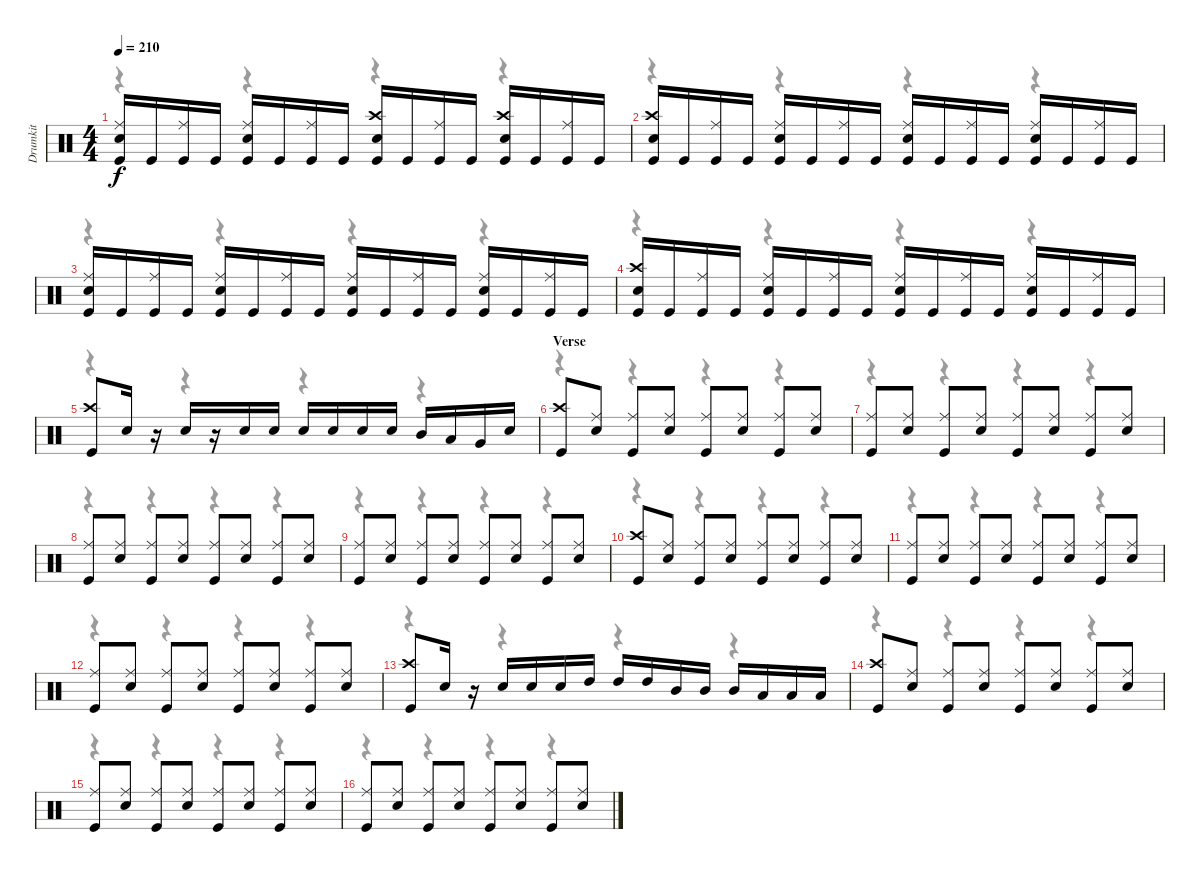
\track ("Drumkit" "Drumkit") {instrument percussion}
\staff {score}
\articulation defaults
\voice
\ts (4 4)
\tempo 210
\clef neutral
\ks c
("Ride (middle)" "Snare (hit) 2" "Kick (hit)").16{dy f} "Kick (hit)".16 ("Ride (middle)" "Kick (hit)").16 "Kick (hit)".16 ("Ride (middle)" "Snare (hit) 2" "Kick (hit)").16 "Kick (hit)".16 ("Ride (middle)" "Kick (hit)").16 "Kick (hit)".16 ("Crash high (hit)" "Snare (hit) 2" "Kick (hit)").16 "Kick (hit)".16 ("Ride (middle)" "Kick (hit)").16 "Kick (hit)".16 ("Crash high (hit)" "Snare (hit) 2" "Kick (hit)").16 "Kick (hit)".16 ("Ride (middle)" "Kick (hit)").16 "Kick (hit)".16 |
("Crash high (hit)" "Snare (hit) 2" "Kick (hit)").16 "Kick (hit)".16 ("Ride (middle)" "Kick (hit)").16 "Kick (hit)".16 ("Ride (middle)" "Snare (hit) 2" "Kick (hit)").16 "Kick (hit)".16 ("Ride (middle)" "Kick (hit)").16 "Kick (hit)".16 ("Ride (middle)" "Snare (hit) 2" "Kick (hit)").16 "Kick (hit)".16 ("Ride (middle)" "Kick (hit)").16 "Kick (hit)".16 ("Ride (middle)" "Snare (hit) 2" "Kick (hit)").16 "Kick (hit)".16 ("Ride (middle)" "Kick (hit)").16 "Kick (hit)".16 |
("Ride (middle)" "Snare (hit) 2" "Kick (hit)").16 "Kick (hit)".16 ("Ride (middle)" "Kick (hit)").16 "Kick (hit)".16 ("Ride (middle)" "Snare (hit) 2" "Kick (hit)").16 "Kick (hit)".16 ("Ride (middle)" "Kick (hit)").16 "Kick (hit)".16 ("Ride (middle)" "Snare (hit) 2" "Kick (hit)").16 "Kick (hit)".16 ("Ride (middle)" "Kick (hit)").16 "Kick (hit)".16 ("Ride (middle)" "Snare (hit) 2" "Kick (hit)").16 "Kick (hit)".16 ("Ride (middle)" "Kick (hit)").16 "Kick (hit)".16 |
("Crash high (hit)" "Snare (hit) 2" "Kick (hit)").16 "Kick (hit)".16 ("Ride (middle)" "Kick (hit)").16 "Kick (hit)".16 ("Ride (middle)" "Snare (hit) 2" "Kick (hit)").16 "Kick (hit)".16 ("Ride (middle)" "Kick (hit)").16 "Kick (hit)".16 ("Ride (middle)" "Snare (hit) 2" "Kick (hit)").16 "Kick (hit)".16 ("Ride (middle)" "Kick (hit)").16 "Kick (hit)".16 ("Ride (middle)" "Snare (hit) 2" "Kick (hit)").16 "Kick (hit)".16 ("Ride (middle)" "Kick (hit)").16 "Kick (hit)".16 |
("Crash high (hit)" "Kick (hit)").8 "Snare (hit) 2".16 r.16 "Snare (hit) 2".16 r.16 "Snare (hit) 2".16 "Snare (hit) 2".16 "Snare (hit) 2".16 "Snare (hit) 2".16 "Snare (hit) 2".16 "Snare (hit) 2".16 "Mid Tom (hit)".16 "Low Tom (hit)".16 "Very Low Tom (hit)".16 "Snare (hit) 2".16 |
\section ("" "Verse")
("Crash high (hit)" "Kick (hit)").8 ("Ride (middle)" "Snare (hit) 2").8 ("Ride (middle)" "Kick (hit)").8 ("Ride (middle)" "Snare (hit) 2").8 ("Ride (middle)" "Kick (hit)").8 ("Ride (middle)" "Snare (hit) 2").8 ("Ride (middle)" "Kick (hit)").8 ("Ride (middle)" "Snare (hit) 2").8 |
("Ride (middle)" "Kick (hit)").8 ("Ride (middle)" "Snare (hit) 2").8 ("Ride (middle)" "Kick (hit)").8 ("Ride (middle)" "Snare (hit) 2").8 ("Ride (middle)" "Kick (hit)").8 ("Ride (middle)" "Snare (hit) 2").8 ("Ride (middle)" "Kick (hit)").8 ("Ride (middle)" "Snare (hit) 2").8 |
("Ride (middle)" "Kick (hit)").8 ("Ride (middle)" "Snare (hit) 2").8 ("Ride (middle)" "Kick (hit)").8 ("Ride (middle)" "Snare (hit) 2").8 ("Ride (middle)" "Kick (hit)").8 ("Ride (middle)" "Snare (hit) 2").8 ("Ride (middle)" "Kick (hit)").8 ("Ride (middle)" "Snare (hit) 2").8 |
("Ride (middle)" "Kick (hit)").8 ("Ride (middle)" "Snare (hit) 2").8 ("Ride (middle)" "Kick (hit)").8 ("Ride (middle)" "Snare (hit) 2").8 ("Ride (middle)" "Kick (hit)").8 ("Ride (middle)" "Snare (hit) 2").8 ("Ride (middle)" "Kick (hit)").8 ("Ride (middle)" "Snare (hit) 2").8 |
("Crash high (hit)" "Kick (hit)").8 ("Ride (middle)" "Snare (hit) 2").8 ("Ride (middle)" "Kick (hit)").8 ("Ride (middle)" "Snare (hit) 2").8 ("Ride (middle)" "Kick (hit)").8 ("Ride (middle)" "Snare (hit) 2").8 ("Ride (middle)" "Kick (hit)").8 ("Ride (middle)" "Snare (hit) 2").8 |
("Ride (middle)" "Kick (hit)").8 ("Ride (middle)" "Snare (hit) 2").8 ("Ride (middle)" "Kick (hit)").8 ("Ride (middle)" "Snare (hit) 2").8 ("Ride (middle)" "Kick (hit)").8 ("Ride (middle)" "Snare (hit) 2").8 ("Ride (middle)" "Kick (hit)").8 ("Ride (middle)" "Snare (hit) 2").8 |
("Ride (middle)" "Kick (hit)").8 ("Ride (middle)" "Snare (hit) 2").8 ("Ride (middle)" "Kick (hit)").8 ("Ride (middle)" "Snare (hit) 2").8 ("Ride (middle)" "Kick (hit)").8 ("Ride (middle)" "Snare (hit) 2").8 ("Ride (middle)" "Kick (hit)").8 ("Ride (middle)" "Snare (hit) 2").8 |
("Crash high (hit)" "Kick (hit)").8 "Snare (hit) 2".16 r.16 "Snare (hit) 2".16 "Snare (hit) 2".16 "Snare (hit) 2".16 "High Tom (hit)".16 "High Tom (hit)".16 "High Tom (hit)".16 "Mid Tom (hit)".16 "Mid Tom (hit)".16 "Mid Tom (hit)".16 "Low Tom (hit)".16 "Low Tom (hit)".16 "Low Tom (hit)".16 |
("Crash high (hit)" "Kick (hit)").8 ("Ride (middle)" "Snare (hit) 2").8 ("Ride (middle)" "Kick (hit)").8 ("Ride (middle)" "Snare (hit) 2").8 ("Ride (middle)" "Kick (hit)").8 ("Ride (middle)" "Snare (hit) 2").8 ("Ride (middle)" "Kick (hit)").8 ("Ride (middle)" "Snare (hit) 2").8 |
("Ride (middle)" "Kick (hit)").8 ("Ride (middle)" "Snare (hit) 2").8 ("Ride (middle)" "Kick (hit)").8 ("Ride (middle)" "Snare (hit) 2").8 ("Ride (middle)" "Kick (hit)").8 ("Ride (middle)" "Snare (hit) 2").8 ("Ride (middle)" "Kick (hit)").8 ("Ride (middle)" "Snare (hit) 2").8 |
("Ride (middle)" "Kick (hit)").8 ("Ride (middle)" "Snare (hit) 2").8 ("Ride (middle)" "Kick (hit)").8 ("Ride (middle)" "Snare (hit) 2").8 ("Ride (middle)" "Kick (hit)").8 ("Ride (middle)" "Snare (hit) 2").8 ("Ride (middle)" "Kick (hit)").8 ("Ride (middle)" "Snare (hit) 2").8
\voice
\clef neutral
\ottava regular
\simile none
\ks c
r.4{dy f} r.4 r.4 r.4 |
r.4 r.4 r.4 r.4 |
r.4 r.4 r.4 r.4 |
r.4 r.4 r.4 r.4 |
r.4 r.4 r.4 r.4 |
r.4 r.4 r.4 r.4 |
r.4 r.4 r.4 r.4 |
r.4 r.4 r.4 r.4 |
r.4 r.4 r.4 r.4 |
r.4 r.4 r.4 r.4 |
r.4 r.4 r.4 r.4 |
r.4 r.4 r.4 r.4 |
r.4 r.4 r.4 r.4 |
r.4 r.4 r.4 r.4 |
r.4 r.4 r.4 r.4 |
r.4 r.4 r.4 r.4
